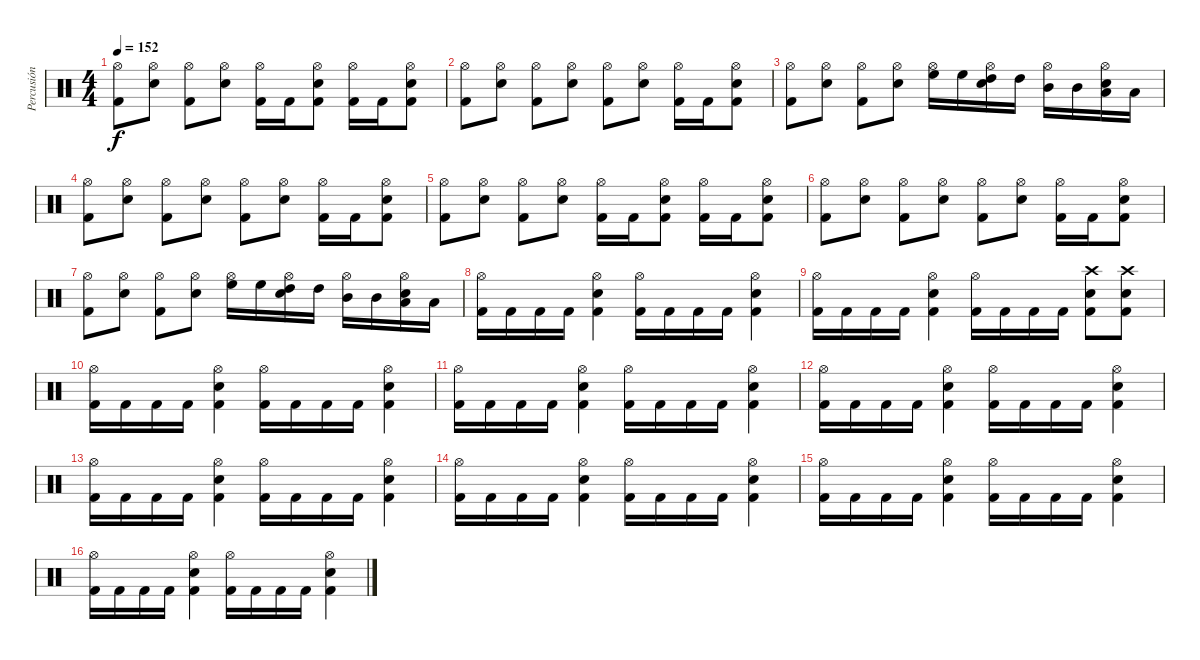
\track ("Percusión" "Percusión") {instrument percussion}
\staff {score}
\articulation defaults
\ts (4 4)
\tempo 152
\clef neutral
\ks c
("Hi-Hat (open)" "Kick (hit) 2").8{dy f} ("Hi-Hat (open)" "Snare (hit) 2").8 ("Hi-Hat (open)" "Kick (hit) 2").8 ("Hi-Hat (open)" "Snare (hit) 2").8 ("Hi-Hat (open)" "Kick (hit) 2").16 "Kick (hit) 2".16 ("Hi-Hat (open)" "Snare (hit) 2" "Kick (hit) 2").8 ("Hi-Hat (open)" "Kick (hit) 2").16 "Kick (hit) 2".16 ("Hi-Hat (open)" "Snare (hit) 2" "Kick (hit) 2").8 |
("Hi-Hat (open)" "Kick (hit) 2").8 ("Hi-Hat (open)" "Snare (hit) 2").8 ("Hi-Hat (open)" "Kick (hit) 2").8 ("Hi-Hat (open)" "Snare (hit) 2").8 ("Hi-Hat (open)" "Kick (hit) 2").8 ("Hi-Hat (open)" "Snare (hit) 2").8 ("Hi-Hat (open)" "Kick (hit) 2").16 "Kick (hit) 2".16 ("Hi-Hat (open)" "Snare (hit) 2" "Kick (hit) 2").8 |
("Hi-Hat (open)" "Kick (hit) 2").8 ("Hi-Hat (open)" "Snare (hit) 2").8 ("Hi-Hat (open)" "Kick (hit) 2").8 ("Hi-Hat (open)" "Snare (hit) 2").8 ("Hi-Hat (open)" "High Floor Tom (hit)").16 "High Floor Tom (hit)".16 ("Hi-Hat (open)" "Snare (hit) 2" "High Tom (hit)").16 "High Tom (hit)".16 ("Hi-Hat (open)" "Mid Tom (hit)").16 "Mid Tom (hit)".16 ("Hi-Hat (open)" "Snare (hit) 2" "Low Tom (hit)").16 "Low Tom (hit)".16 |
("Hi-Hat (open)" "Kick (hit) 2").8 ("Hi-Hat (open)" "Snare (hit) 2").8 ("Hi-Hat (open)" "Kick (hit) 2").8 ("Hi-Hat (open)" "Snare (hit) 2").8 ("Hi-Hat (open)" "Kick (hit) 2").8 ("Hi-Hat (open)" "Snare (hit) 2").8 ("Hi-Hat (open)" "Kick (hit) 2").16 "Kick (hit) 2".16 ("Hi-Hat (open)" "Snare (hit) 2" "Kick (hit) 2").8 |
("Hi-Hat (open)" "Kick (hit) 2").8 ("Hi-Hat (open)" "Snare (hit) 2").8 ("Hi-Hat (open)" "Kick (hit) 2").8 ("Hi-Hat (open)" "Snare (hit) 2").8 ("Hi-Hat (open)" "Kick (hit) 2").16 "Kick (hit) 2".16 ("Hi-Hat (open)" "Snare (hit) 2" "Kick (hit) 2").8 ("Hi-Hat (open)" "Kick (hit) 2").16 "Kick (hit) 2".16 ("Hi-Hat (open)" "Snare (hit) 2" "Kick (hit) 2").8 |
("Hi-Hat (open)" "Kick (hit) 2").8 ("Hi-Hat (open)" "Snare (hit) 2").8 ("Hi-Hat (open)" "Kick (hit) 2").8 ("Hi-Hat (open)" "Snare (hit) 2").8 ("Hi-Hat (open)" "Kick (hit) 2").8 ("Hi-Hat (open)" "Snare (hit) 2").8 ("Hi-Hat (open)" "Kick (hit) 2").16 "Kick (hit) 2".16 ("Hi-Hat (open)" "Snare (hit) 2" "Kick (hit) 2").8 |
("Hi-Hat (open)" "Kick (hit) 2").8 ("Hi-Hat (open)" "Snare (hit) 2").8 ("Hi-Hat (open)" "Kick (hit) 2").8 ("Hi-Hat (open)" "Snare (hit) 2").8 ("Hi-Hat (open)" "High Floor Tom (hit)").16 "High Floor Tom (hit)".16 ("Hi-Hat (open)" "Snare (hit) 2" "High Tom (hit)").16 "High Tom (hit)".16 ("Hi-Hat (open)" "Mid Tom (hit)").16 "Mid Tom (hit)".16 ("Hi-Hat (open)" "Snare (hit) 2" "Low Tom (hit)").16 "Low Tom (hit)".16 |
("Hi-Hat (open)" "Kick (hit) 2").16 "Kick (hit) 2".16 "Kick (hit) 2".16 "Kick (hit) 2".16 ("Hi-Hat (open)" "Snare (hit) 2" "Kick (hit) 2").4 ("Hi-Hat (open)" "Kick (hit) 2").16 "Kick (hit) 2".16 "Kick (hit) 2".16 "Kick (hit) 2".16 ("Hi-Hat (open)" "Snare (hit) 2" "Kick (hit) 2").4 |
("Hi-Hat (open)" "Kick (hit) 2").16 "Kick (hit) 2".16 "Kick (hit) 2".16 "Kick (hit) 2".16 ("Hi-Hat (open)" "Snare (hit) 2" "Kick (hit) 2").4 ("Hi-Hat (open)" "Kick (hit) 2").16 "Kick (hit) 2".16 "Kick (hit) 2".16 "Kick (hit) 2".16 ("Crash high (hit)" "Snare (hit) 2" "Kick (hit) 2").8 ("Crash high (hit)" "Snare (hit) 2" "Kick (hit) 2").8 |
("Hi-Hat (open)" "Kick (hit) 2").16 "Kick (hit) 2".16 "Kick (hit) 2".16 "Kick (hit) 2".16 ("Hi-Hat (open)" "Snare (hit) 2" "Kick (hit) 2").4 ("Hi-Hat (open)" "Kick (hit) 2").16 "Kick (hit) 2".16 "Kick (hit) 2".16 "Kick (hit) 2".16 ("Hi-Hat (open)" "Snare (hit) 2" "Kick (hit) 2").4 |
("Hi-Hat (open)" "Kick (hit) 2").16 "Kick (hit) 2".16 "Kick (hit) 2".16 "Kick (hit) 2".16 ("Hi-Hat (open)" "Snare (hit) 2" "Kick (hit) 2").4 ("Hi-Hat (open)" "Kick (hit) 2").16 "Kick (hit) 2".16 "Kick (hit) 2".16 "Kick (hit) 2".16 ("Hi-Hat (open)" "Snare (hit) 2" "Kick (hit) 2").4 |
("Hi-Hat (open)" "Kick (hit) 2").16 "Kick (hit) 2".16 "Kick (hit) 2".16 "Kick (hit) 2".16 ("Hi-Hat (open)" "Snare (hit) 2" "Kick (hit) 2").4 ("Hi-Hat (open)" "Kick (hit) 2").16 "Kick (hit) 2".16 "Kick (hit) 2".16 "Kick (hit) 2".16 ("Hi-Hat (open)" "Snare (hit) 2" "Kick (hit) 2").4 |
("Hi-Hat (open)" "Kick (hit) 2").16 "Kick (hit) 2".16 "Kick (hit) 2".16 "Kick (hit) 2".16 ("Hi-Hat (open)" "Snare (hit) 2" "Kick (hit) 2").4 ("Hi-Hat (open)" "Kick (hit) 2").16 "Kick (hit) 2".16 "Kick (hit) 2".16 "Kick (hit) 2".16 ("Hi-Hat (open)" "Snare (hit) 2" "Kick (hit) 2").4 |
("Hi-Hat (open)" "Kick (hit) 2").16 "Kick (hit) 2".16 "Kick (hit) 2".16 "Kick (hit) 2".16 ("Hi-Hat (open)" "Snare (hit) 2" "Kick (hit) 2").4 ("Hi-Hat (open)" "Kick (hit) 2").16 "Kick (hit) 2".16 "Kick (hit) 2".16 "Kick (hit) 2".16 ("Hi-Hat (open)" "Snare (hit) 2" "Kick (hit) 2").4 |
("Hi-Hat (open)" "Kick (hit) 2").16 "Kick (hit) 2".16 "Kick (hit) 2".16 "Kick (hit) 2".16 ("Hi-Hat (open)" "Snare (hit) 2" "Kick (hit) 2").4 ("Hi-Hat (open)" "Kick (hit) 2").16 "Kick (hit) 2".16 "Kick (hit) 2".16 "Kick (hit) 2".16 ("Hi-Hat (open)" "Snare (hit) 2" "Kick (hit) 2").4 |
("Hi-Hat (open)" "Kick (hit) 2").16 "Kick (hit) 2".16 "Kick (hit) 2".16 "Kick (hit) 2".16 ("Hi-Hat (open)" "Snare (hit) 2" "Kick (hit) 2").4 ("Hi-Hat (open)" "Kick (hit) 2").16 "Kick (hit) 2".16 "Kick (hit) 2".16 "Kick (hit) 2".16 ("Hi-Hat (open)" "Snare (hit) 2" "Kick (hit) 2").4
